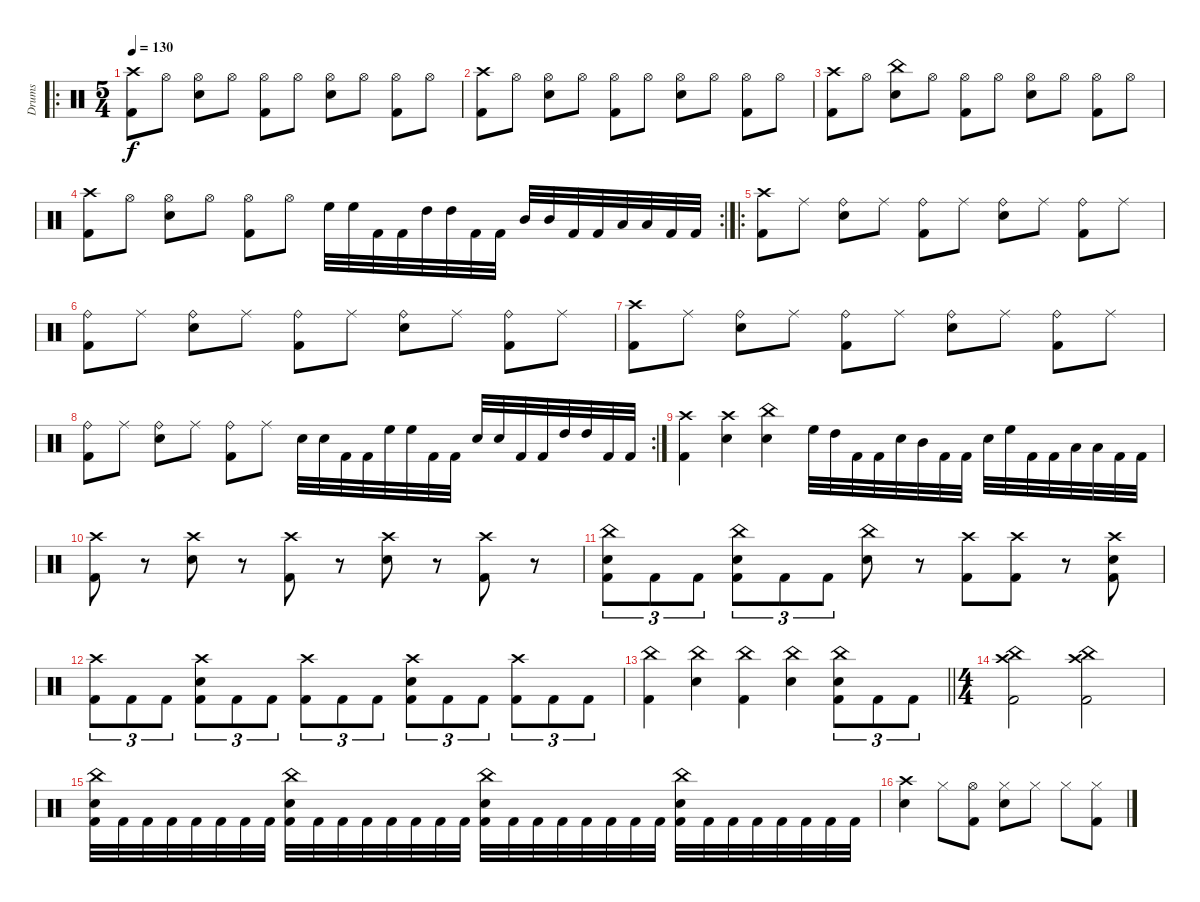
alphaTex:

\track ("Drums" "Drums") {instrument percussion}
\staff {score}
\articulation defaults
\ro
\ts (5 4)
\tempo 130
\clef neutral
\ks c
("Crash high (hit)" "Kick (hit) 2").8{dy f} "Hi-Hat (open)".8 ("Hi-Hat (open)" "Snare (hit) 2").8 "Hi-Hat (open)".8 ("Hi-Hat (open)" "Kick (hit) 2").8 "Hi-Hat (open)".8 ("Hi-Hat (open)" "Snare (hit) 2").8 "Hi-Hat (open)".8 ("Hi-Hat (open)" "Kick (hit) 2").8 "Hi-Hat (open)".8 |
("Crash high (hit)" "Kick (hit) 2").8 "Hi-Hat (open)".8 ("Hi-Hat (open)" "Snare (hit) 2").8 "Hi-Hat (open)".8 ("Hi-Hat (open)" "Kick (hit) 2").8 "Hi-Hat (open)".8 ("Hi-Hat (open)" "Snare (hit) 2").8 "Hi-Hat (open)".8 ("Hi-Hat (open)" "Kick (hit) 2").8 "Hi-Hat (open)".8 |
("Crash high (hit)" "Kick (hit) 2").8 "Hi-Hat (open)".8 ("China (hit)" "Snare (hit) 2").8 "Hi-Hat (open)".8 ("Hi-Hat (open)" "Kick (hit) 2").8 "Hi-Hat (open)".8 ("Hi-Hat (open)" "Snare (hit) 2").8 "Hi-Hat (open)".8 ("Hi-Hat (open)" "Kick (hit) 2").8 "Hi-Hat (open)".8 |
\rc 2
("Crash high (hit)" "Kick (hit) 2").8 "Hi-Hat (open)".8 ("Hi-Hat (open)" "Snare (hit) 2").8 "Hi-Hat (open)".8 ("Hi-Hat (open)" "Kick (hit) 2").8 "Hi-Hat (open)".8 "High Floor Tom (hit)".32 "High Floor Tom (hit)".32 "Kick (hit) 2".32 "Kick (hit) 2".32 "High Tom (hit)".32 "High Tom (hit)".32 "Kick (hit) 2".32 "Kick (hit) 2".32 "Mid Tom (hit)".32 "Mid Tom (hit)".32 "Kick (hit) 2".32 "Kick (hit) 2".32 "Low Tom (hit)".32 "Low Tom (hit)".32 "Kick (hit) 2".32 "Kick (hit) 2".32 |
\ro
("Crash high (hit)" "Kick (hit) 2").8 "Ride (middle)".8 ("Ride (bell)" "Snare (hit) 2").8 "Ride (middle)".8 ("Ride (bell)" "Kick (hit) 2").8 "Ride (middle)".8 ("Ride (bell)" "Snare (hit) 2").8 "Ride (middle)".8 ("Ride (bell)" "Kick (hit) 2").8 "Ride (middle)".8 |
("Ride (bell)" "Kick (hit) 2").8 "Ride (middle)".8 ("Ride (bell)" "Snare (hit) 2").8 "Ride (middle)".8 ("Ride (bell)" "Kick (hit) 2").8 "Ride (middle)".8 ("Ride (bell)" "Snare (hit) 2").8 "Ride (middle)".8 ("Ride (bell)" "Kick (hit) 2").8 "Ride (middle)".8 |
("Crash high (hit)" "Kick (hit) 2").8 "Ride (middle)".8 ("Ride (bell)" "Snare (hit) 2").8 "Ride (middle)".8 ("Ride (bell)" "Kick (hit) 2").8 "Ride (middle)".8 ("Ride (bell)" "Snare (hit) 2").8 "Ride (middle)".8 ("Ride (bell)" "Kick (hit) 2").8 "Ride (middle)".8 |
\rc 2
("Ride (bell)" "Kick (hit) 2").8 "Ride (middle)".8 ("Ride (bell)" "Snare (hit) 2").8 "Ride (middle)".8 ("Ride (bell)" "Kick (hit) 2").8 "Ride (middle)".8 "Snare (hit) 2".32 "Snare (hit) 2".32 "Kick (hit) 2".32 "Kick (hit) 2".32 "High Floor Tom (hit)".32 "High Floor Tom (hit)".32 "Kick (hit) 2".32 "Kick (hit) 2".32 "Snare (hit) 2".32 "Snare (hit) 2".32 "Kick (hit) 2".32 "Kick (hit) 2".32 "High Tom (hit)".32 "High Tom (hit)".32 "Kick (hit) 2".32 "Kick (hit) 2".32 |
("Crash high (hit)" "Kick (hit) 2").4 ("Crash high (hit)" "Snare (hit) 2").4 ("China (hit)" "Snare (hit) 2").4 "High Floor Tom (hit)".32 "High Tom (hit)".32 "Kick (hit) 2".32 "Kick (hit) 2".32 "Snare (hit) 2".32 "Mid Tom (hit)".32 "Kick (hit) 2".32 "Kick (hit) 2".32 "Snare (hit) 2".32 "High Floor Tom (hit)".32 "Kick (hit) 2".32 "Kick (hit) 2".32 "Low Tom (hit)".32 "Low Tom (hit)".32 "Kick (hit) 2".32 "Kick (hit) 2".32 |
("Crash high (hit)" "Kick (hit) 2").8 r.8 ("Crash high (hit)" "Snare (hit) 2").8 r.8 ("Crash high (hit)" "Kick (hit) 2").8 r.8 ("Crash high (hit)" "Snare (hit) 2").8 r.8 ("Crash high (hit)" "Kick (hit) 2").8 r.8 |
("China (hit)" "Snare (hit) 2" "Kick (hit) 2").8{tu (3 2)} "Kick (hit) 2".8{tu (3 2)} "Kick (hit) 2".8{tu (3 2)} ("China (hit)" "Snare (hit) 2" "Kick (hit) 2").8{tu (3 2)} "Kick (hit) 2".8{tu (3 2)} "Kick (hit) 2".8{tu (3 2)} ("China (hit)" "Snare (hit) 2").8 r.8 ("Crash high (hit)" "Kick (hit) 2").8 ("Crash high (hit)" "Kick (hit) 2").8 r.8 ("Crash high (hit)" "Snare (hit) 2" "Kick (hit) 2").8 |
("Crash high (hit)" "Kick (hit) 2").8{tu (3 2)} "Kick (hit) 2".8{tu (3 2)} "Kick (hit) 2".8{tu (3 2)} ("Crash high (hit)" "Snare (hit) 2" "Kick (hit) 2").8{tu (3 2)} "Kick (hit) 2".8{tu (3 2)} "Kick (hit) 2".8{tu (3 2)} ("Crash high (hit)" "Kick (hit) 2").8{tu (3 2)} "Kick (hit) 2".8{tu (3 2)} "Kick (hit) 2".8{tu (3 2)} ("Crash high (hit)" "Snare (hit) 2" "Kick (hit) 2").8{tu (3 2)} "Kick (hit) 2".8{tu (3 2)} "Kick (hit) 2".8{tu (3 2)} ("Crash high (hit)" "Kick (hit) 2").8{tu (3 2)} "Kick (hit) 2".8{tu (3 2)} "Kick (hit) 2".8{tu (3 2)} |
\barLineRight lightlight
("China (hit)" "Kick (hit) 2").4 ("China (hit)" "Snare (hit) 2").4 ("China (hit)" "Kick (hit) 2").4 ("China (hit)" "Snare (hit) 2").4 ("China (hit)" "Snare (hit) 2" "Kick (hit) 2").8{tu (3 2)} "Kick (hit) 2".8{tu (3 2)} "Kick (hit) 2".8{tu (3 2)} |
\ts (4 4)
("Crash high (hit)" "China (hit)" "Kick (hit) 2").2 ("Crash high (hit)" "China (hit)" "Kick (hit) 2").2 |
("China (hit)" "Snare (hit) 2" "Kick (hit) 2").32 "Kick (hit) 2".32 "Kick (hit) 2".32 "Kick (hit) 2".32 "Kick (hit) 2".32 "Kick (hit) 2".32 "Kick (hit) 2".32 "Kick (hit) 2".32 ("China (hit)" "Snare (hit) 2" "Kick (hit) 2").32 "Kick (hit) 2".32 "Kick (hit) 2".32 "Kick (hit) 2".32 "Kick (hit) 2".32 "Kick (hit) 2".32 "Kick (hit) 2".32 "Kick (hit) 2".32 ("China (hit)" "Snare (hit) 2" "Kick (hit) 2").32 "Kick (hit) 2".32 "Kick (hit) 2".32 "Kick (hit) 2".32 "Kick (hit) 2".32 "Kick (hit) 2".32 "Kick (hit) 2".32 "Kick (hit) 2".32 ("China (hit)" "Snare (hit) 2" "Kick (hit) 2").32 "Kick (hit) 2".32 "Kick (hit) 2".32 "Kick (hit) 2".32 "Kick (hit) 2".32 "Kick (hit) 2".32 "Kick (hit) 2".32 "Kick (hit) 2".32 |
("Crash high (hit)" "Snare (hit) 2").4 "Hi-Hat (closed)".8 ("Hi-Hat (open)" "Kick (hit) 2").8 ("Hi-Hat (closed)" "Snare (hit) 2").8 "Hi-Hat (closed)".8 "Hi-Hat (closed)".8 ("Hi-Hat (closed)" "Kick (hit) 2").8
